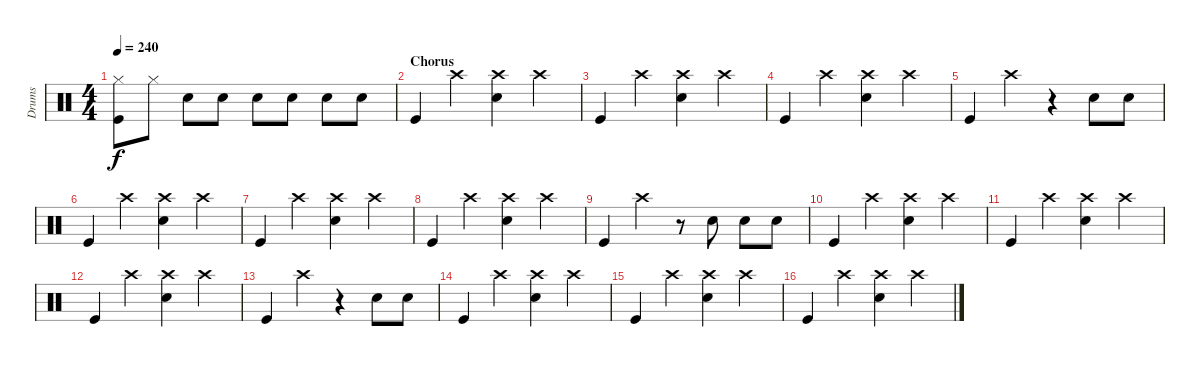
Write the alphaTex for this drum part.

\track ("Drums" "Drums") {instrument percussion}
\staff {score}
\articulation defaults
\ts (4 4)
\tempo 240
\clef neutral
\ks c
("Kick (hit)" "Hi-Hat (closed)").8{dy f} "Hi-Hat (closed)".8 "Snare (hit) 2".8 "Snare (hit) 2".8 "Snare (hit) 2".8 "Snare (hit) 2".8 "Snare (hit) 2".8 "Snare (hit) 2".8 |
\section ("" "Chorus")
"Kick (hit)".4 "Crash high (hit)".4 ("Snare (hit) 2" "Crash high (hit)").4 "Crash high (hit)".4 |
"Kick (hit)".4 "Crash high (hit)".4 ("Snare (hit) 2" "Crash high (hit)").4 "Crash high (hit)".4 |
"Kick (hit)".4 "Crash high (hit)".4 ("Snare (hit) 2" "Crash high (hit)").4 "Crash high (hit)".4 |
"Kick (hit)".4 "Crash high (hit)".4 r.4 "Snare (hit) 2".8 "Snare (hit) 2".8 |
"Kick (hit)".4 "Crash high (hit)".4 ("Snare (hit) 2" "Crash high (hit)").4 "Crash high (hit)".4 |
"Kick (hit)".4 "Crash high (hit)".4 ("Snare (hit) 2" "Crash high (hit)").4 "Crash high (hit)".4 |
"Kick (hit)".4 "Crash high (hit)".4 ("Snare (hit) 2" "Crash high (hit)").4 "Crash high (hit)".4 |
"Kick (hit)".4 "Crash high (hit)".4 r.8 "Snare (hit) 2".8 "Snare (hit) 2".8 "Snare (hit) 2".8 |
"Kick (hit)".4 "Crash high (hit)".4 ("Snare (hit) 2" "Crash high (hit)").4 "Crash high (hit)".4 |
"Kick (hit)".4 "Crash high (hit)".4 ("Snare (hit) 2" "Crash high (hit)").4 "Crash high (hit)".4 |
"Kick (hit)".4 "Crash high (hit)".4 ("Snare (hit) 2" "Crash high (hit)").4 "Crash high (hit)".4 |
"Kick (hit)".4 "Crash high (hit)".4 r.4 "Snare (hit) 2".8 "Snare (hit) 2".8 |
"Kick (hit)".4 "Crash high (hit)".4 ("Snare (hit) 2" "Crash high (hit)").4 "Crash high (hit)".4 |
"Kick (hit)".4 "Crash high (hit)".4 ("Snare (hit) 2" "Crash high (hit)").4 "Crash high (hit)".4 |
"Kick (hit)".4 "Crash high (hit)".4 ("Snare (hit) 2" "Crash high (hit)").4 "Crash high (hit)".4
